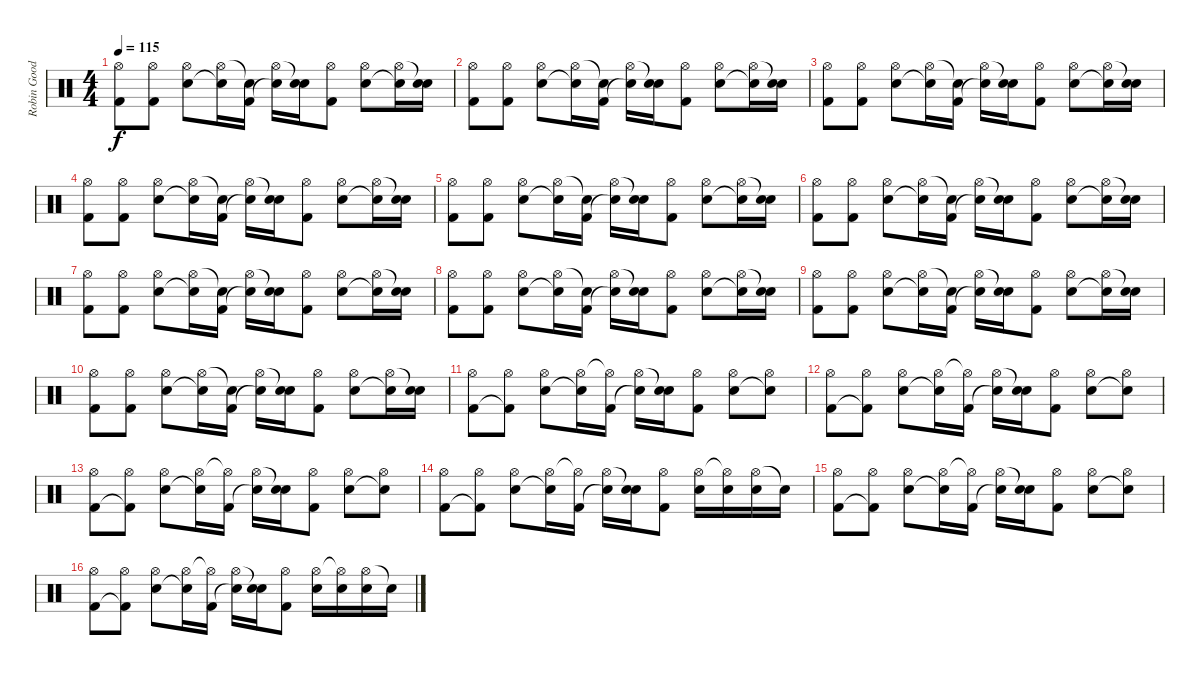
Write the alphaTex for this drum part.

\track ("Robin Goodridge" "Robin Good") {instrument percussion}
\staff {score}
\articulation defaults
\ts (4 4)
\tempo 115
\clef neutral
\ks c
("Hi-Hat (open)" "Kick (hit) 2").8{dy f} ("Hi-Hat (open)" "Kick (hit) 2").8 ("Hi-Hat (open)" "Snare (hit) 2").8 ("Hi-Hat (open)" "Snare (hit)"{t}).16 ("Snare (hit)"{t} "Kick (hit) 2").16 ("Hi-Hat (open)" "Snare (hit)"{t}).16 ("Snare (hit)"{t} "Snare (hit) 2").16 ("Hi-Hat (open)" "Kick (hit) 2").8 ("Hi-Hat (open)" "Snare (hit) 2").8 ("Hi-Hat (open)" "Snare (hit) 2"{t}).16 ("Snare (hit)"{t} "Snare (hit) 2").16 |
("Hi-Hat (open)" "Kick (hit) 2").8 ("Hi-Hat (open)" "Kick (hit) 2").8 ("Hi-Hat (open)" "Snare (hit) 2").8 ("Hi-Hat (open)" "Snare (hit)"{t}).16 ("Snare (hit)"{t} "Kick (hit) 2").16 ("Hi-Hat (open)" "Snare (hit)"{t}).16 ("Snare (hit)"{t} "Snare (hit) 2").16 ("Hi-Hat (open)" "Kick (hit) 2").8 ("Hi-Hat (open)" "Snare (hit) 2").8 ("Hi-Hat (open)" "Snare (hit) 2"{t}).16 ("Snare (hit)"{t} "Snare (hit) 2").16 |
("Hi-Hat (open)" "Kick (hit) 2").8 ("Hi-Hat (open)" "Kick (hit) 2").8 ("Hi-Hat (open)" "Snare (hit) 2").8 ("Hi-Hat (open)" "Snare (hit)"{t}).16 ("Snare (hit)"{t} "Kick (hit) 2").16 ("Hi-Hat (open)" "Snare (hit)"{t}).16 ("Snare (hit)"{t} "Snare (hit) 2").16 ("Hi-Hat (open)" "Kick (hit) 2").8 ("Hi-Hat (open)" "Snare (hit) 2").8 ("Hi-Hat (open)" "Snare (hit) 2"{t}).16 ("Snare (hit)"{t} "Snare (hit) 2").16 |
("Hi-Hat (open)" "Kick (hit) 2").8 ("Hi-Hat (open)" "Kick (hit) 2").8 ("Hi-Hat (open)" "Snare (hit) 2").8 ("Hi-Hat (open)" "Snare (hit)"{t}).16 ("Snare (hit)"{t} "Kick (hit) 2").16 ("Hi-Hat (open)" "Snare (hit)"{t}).16 ("Snare (hit)"{t} "Snare (hit) 2").16 ("Hi-Hat (open)" "Kick (hit) 2").8 ("Hi-Hat (open)" "Snare (hit) 2").8 ("Hi-Hat (open)" "Snare (hit) 2"{t}).16 ("Snare (hit)"{t} "Snare (hit) 2").16 |
("Hi-Hat (open)" "Kick (hit) 2").8 ("Hi-Hat (open)" "Kick (hit) 2").8 ("Hi-Hat (open)" "Snare (hit) 2").8 ("Hi-Hat (open)" "Snare (hit)"{t}).16 ("Snare (hit)"{t} "Kick (hit) 2").16 ("Hi-Hat (open)" "Snare (hit)"{t}).16 ("Snare (hit)"{t} "Snare (hit) 2").16 ("Hi-Hat (open)" "Kick (hit) 2").8 ("Hi-Hat (open)" "Snare (hit) 2").8 ("Hi-Hat (open)" "Snare (hit) 2"{t}).16 ("Snare (hit)"{t} "Snare (hit) 2").16 |
("Hi-Hat (open)" "Kick (hit) 2").8 ("Hi-Hat (open)" "Kick (hit) 2").8 ("Hi-Hat (open)" "Snare (hit) 2").8 ("Hi-Hat (open)" "Snare (hit)"{t}).16 ("Snare (hit)"{t} "Kick (hit) 2").16 ("Hi-Hat (open)" "Snare (hit)"{t}).16 ("Snare (hit)"{t} "Snare (hit) 2").16 ("Hi-Hat (open)" "Kick (hit) 2").8 ("Hi-Hat (open)" "Snare (hit) 2").8 ("Hi-Hat (open)" "Snare (hit) 2"{t}).16 ("Snare (hit)"{t} "Snare (hit) 2").16 |
("Hi-Hat (open)" "Kick (hit) 2").8 ("Hi-Hat (open)" "Kick (hit) 2").8 ("Hi-Hat (open)" "Snare (hit) 2").8 ("Hi-Hat (open)" "Snare (hit)"{t}).16 ("Snare (hit)"{t} "Kick (hit) 2").16 ("Hi-Hat (open)" "Snare (hit)"{t}).16 ("Snare (hit)"{t} "Snare (hit) 2").16 ("Hi-Hat (open)" "Kick (hit) 2").8 ("Hi-Hat (open)" "Snare (hit) 2").8 ("Hi-Hat (open)" "Snare (hit) 2"{t}).16 ("Snare (hit)"{t} "Snare (hit) 2").16 |
("Hi-Hat (open)" "Kick (hit) 2").8 ("Hi-Hat (open)" "Kick (hit) 2").8 ("Hi-Hat (open)" "Snare (hit) 2").8 ("Hi-Hat (open)" "Snare (hit)"{t}).16 ("Snare (hit)"{t} "Kick (hit) 2").16 ("Hi-Hat (open)" "Snare (hit)"{t}).16 ("Snare (hit)"{t} "Snare (hit) 2").16 ("Hi-Hat (open)" "Kick (hit) 2").8 ("Hi-Hat (open)" "Snare (hit) 2").8 ("Hi-Hat (open)" "Snare (hit) 2"{t}).16 ("Snare (hit)"{t} "Snare (hit) 2").16 |
("Hi-Hat (open)" "Kick (hit) 2").8 ("Hi-Hat (open)" "Kick (hit) 2").8 ("Hi-Hat (open)" "Snare (hit) 2").8 ("Hi-Hat (open)" "Snare (hit)"{t}).16 ("Snare (hit)"{t} "Kick (hit) 2").16 ("Hi-Hat (open)" "Snare (hit)"{t}).16 ("Snare (hit)"{t} "Snare (hit) 2").16 ("Hi-Hat (open)" "Kick (hit) 2").8 ("Hi-Hat (open)" "Snare (hit) 2").8 ("Hi-Hat (open)" "Snare (hit) 2"{t}).16 ("Snare (hit)"{t} "Snare (hit) 2").16 |
("Hi-Hat (open)" "Kick (hit) 2").8 ("Hi-Hat (open)" "Kick (hit) 2").8 ("Hi-Hat (open)" "Snare (hit) 2").8 ("Hi-Hat (open)" "Snare (hit)"{t}).16 ("Snare (hit)"{t} "Kick (hit) 2").16 ("Hi-Hat (open)" "Snare (hit)"{t}).16 ("Snare (hit)"{t} "Snare (hit) 2").16 ("Hi-Hat (open)" "Kick (hit) 2").8 ("Hi-Hat (open)" "Snare (hit) 2").8 ("Hi-Hat (open)" "Snare (hit) 2"{t}).16 ("Snare (hit)"{t} "Snare (hit) 2").16 |
("Hi-Hat (open)" "Kick (hit) 2").8 ("Hi-Hat (open)" "Kick (hit) 2"{t}).8 ("Hi-Hat (open)" "Snare (hit) 2").8 ("Hi-Hat (open)" "Snare (hit)"{t}).16 ("Hi-Hat (open)"{t} "Kick (hit) 2").16 ("Hi-Hat (open)" "Snare (hit)"{t}).16 ("Snare (hit)"{t} "Snare (hit) 2").16 ("Hi-Hat (open)" "Kick (hit) 2").8 ("Hi-Hat (open)" "Snare (hit) 2").8 ("Hi-Hat (open)" "Snare (hit) 2"{t}).8 |
("Hi-Hat (open)" "Kick (hit) 2").8 ("Hi-Hat (open)" "Kick (hit) 2"{t}).8 ("Hi-Hat (open)" "Snare (hit) 2").8 ("Hi-Hat (open)" "Snare (hit)"{t}).16 ("Hi-Hat (open)"{t} "Kick (hit) 2").16 ("Hi-Hat (open)" "Snare (hit)"{t}).16 ("Snare (hit)"{t} "Snare (hit) 2").16 ("Hi-Hat (open)" "Kick (hit) 2").8 ("Hi-Hat (open)" "Snare (hit) 2").8 ("Hi-Hat (open)" "Snare (hit) 2"{t}).8 |
("Hi-Hat (open)" "Kick (hit) 2").8 ("Hi-Hat (open)" "Kick (hit) 2"{t}).8 ("Hi-Hat (open)" "Snare (hit) 2").8 ("Hi-Hat (open)" "Snare (hit)"{t}).16 ("Hi-Hat (open)"{t} "Kick (hit) 2").16 ("Hi-Hat (open)" "Snare (hit)"{t}).16 ("Snare (hit)"{t} "Snare (hit) 2").16 ("Hi-Hat (open)" "Kick (hit) 2").8 ("Hi-Hat (open)" "Snare (hit) 2").8 ("Hi-Hat (open)" "Snare (hit) 2"{t}).8 |
("Hi-Hat (open)" "Kick (hit) 2").8 ("Hi-Hat (open)" "Kick (hit) 2"{t}).8 ("Hi-Hat (open)" "Snare (hit) 2").8 ("Hi-Hat (open)" "Snare (hit)"{t}).16 ("Hi-Hat (open)"{t} "Kick (hit) 2").16 ("Hi-Hat (open)" "Snare (hit)"{t}).16 ("Snare (hit)"{t} "Snare (hit) 2").16 ("Hi-Hat (open)" "Kick (hit) 2").8 ("Hi-Hat (open)" "Snare (hit) 2").16 ("Hi-Hat (open)"{t} "Snare (hit) 2").16 ("Hi-Hat (open)" "Snare (hit) 2").16 "Snare (hit)"{t}.16 |
("Hi-Hat (open)" "Kick (hit) 2").8 ("Hi-Hat (open)" "Kick (hit) 2"{t}).8 ("Hi-Hat (open)" "Snare (hit) 2").8 ("Hi-Hat (open)" "Snare (hit)"{t}).16 ("Hi-Hat (open)"{t} "Kick (hit) 2").16 ("Hi-Hat (open)" "Snare (hit)"{t}).16 ("Snare (hit)"{t} "Snare (hit) 2").16 ("Hi-Hat (open)" "Kick (hit) 2").8 ("Hi-Hat (open)" "Snare (hit) 2").8 ("Hi-Hat (open)" "Snare (hit) 2"{t}).8 |
("Hi-Hat (open)" "Kick (hit) 2").8 ("Hi-Hat (open)" "Kick (hit) 2"{t}).8 ("Hi-Hat (open)" "Snare (hit) 2").8 ("Hi-Hat (open)" "Snare (hit)"{t}).16 ("Hi-Hat (open)"{t} "Kick (hit) 2").16 ("Hi-Hat (open)" "Snare (hit)"{t}).16 ("Snare (hit)"{t} "Snare (hit) 2").16 ("Hi-Hat (open)" "Kick (hit) 2").8 ("Hi-Hat (open)" "Snare (hit) 2").16 ("Hi-Hat (open)"{t} "Snare (hit) 2").16 ("Hi-Hat (open)" "Snare (hit) 2").16 "Snare (hit)"{t}.16
